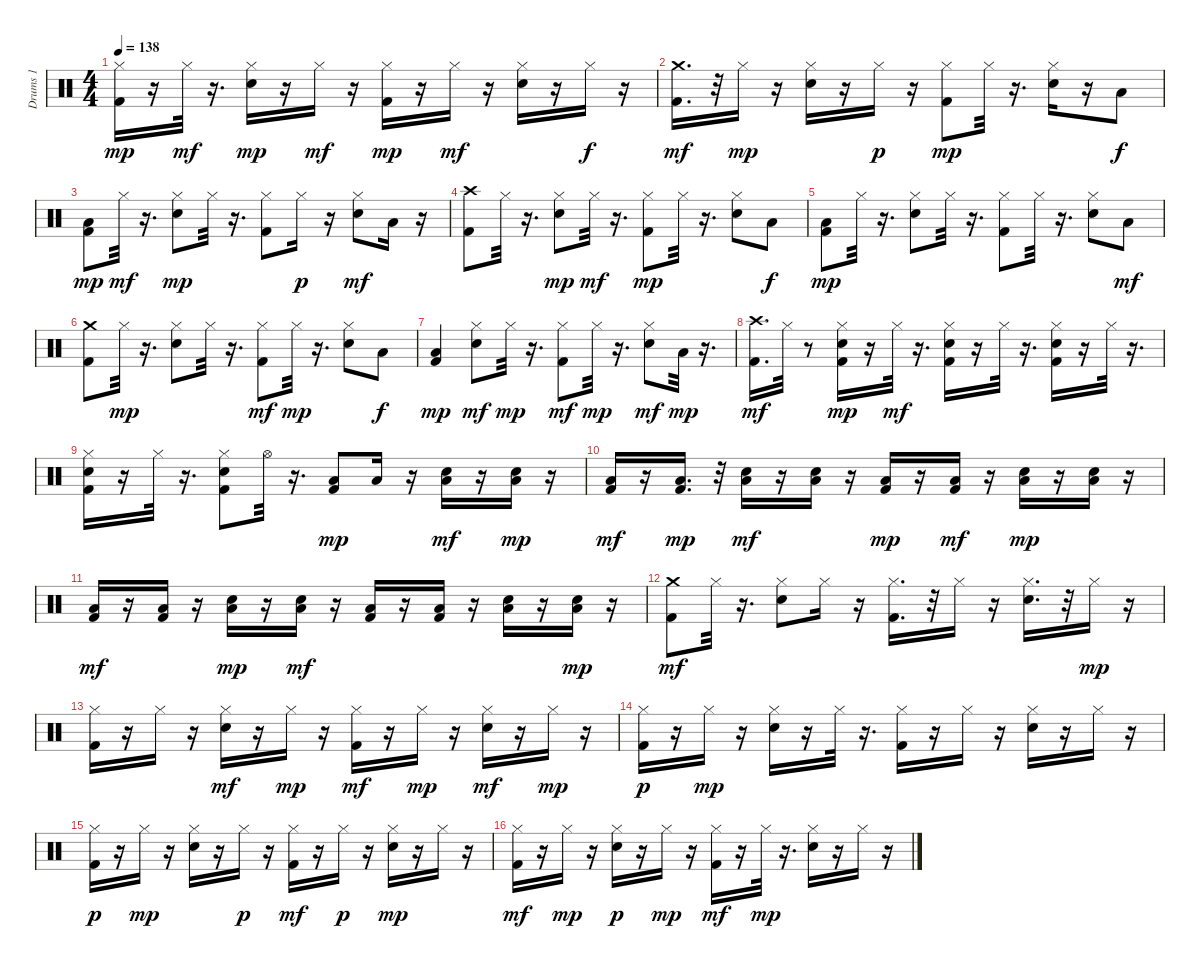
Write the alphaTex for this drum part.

\track ("Drums 1" "Drums 1") {instrument percussion}
\staff {score}
\articulation defaults
\ts (4 4)
\tempo 138
\clef neutral
\ks c
("Hi-Hat (closed)" "Kick (hit) 2").16{dy mp} r.16 "Hi-Hat (closed)".32{dy mf} r.16{d} ("Hi-Hat (closed)" "Snare (hit) 2").16{dy mp} r.16 "Hi-Hat (closed)".16{dy mf} r.16 ("Hi-Hat (closed)" "Kick (hit) 2").16{dy mp} r.16 "Hi-Hat (closed)".16{dy mf} r.16 ("Hi-Hat (closed)" "Snare (hit) 2").16 r.16 "Hi-Hat (closed)".16{dy f} r.16 |
("Kick (hit) 2" "Crash medium (hit)").16{d dy mf} r.32 "Hi-Hat (closed)".16{dy mp} r.16 ("Snare (hit) 2" "Hi-Hat (closed)").16 r.16 "Hi-Hat (closed)".16{dy p} r.16 ("Hi-Hat (closed)" "Kick (hit) 2").8{dy mp} "Hi-Hat (closed)".32 r.16{d} ("Snare (hit) 2" "Hi-Hat (closed)").16 r.16 "Low Tom (hit)".8{dy f} |
("Low Floor Tom (hit)" "Kick (hit) 2").8{dy mp} "Hi-Hat (closed)".32{dy mf} r.16{d} ("Hi-Hat (closed)" "Snare (hit) 2").8{dy mp} "Hi-Hat (closed)".32 r.16{d} ("Kick (hit) 2" "Hi-Hat (closed)").8 "Hi-Hat (closed)".16{dy p} r.16 ("Hi-Hat (closed)" "Snare (hit) 2").8{dy mf} "Low Floor Tom (hit)".16 r.16 |
("Crash high (hit)" "Kick (hit) 2").8 "Hi-Hat (closed)".32 r.16{d} ("Hi-Hat (closed)" "Snare (hit) 2").8{dy mp} "Hi-Hat (closed)".32{dy mf} r.16{d} ("Hi-Hat (closed)" "Kick (hit) 2").8{dy mp} "Hi-Hat (closed)".32 r.16{d} ("Hi-Hat (closed)" "Snare (hit) 2").8 "Low Tom (hit)".8{dy f} |
("Low Floor Tom (hit)" "Kick (hit) 2").8{dy mp} "Hi-Hat (closed)".32 r.16{d} ("Hi-Hat (closed)" "Snare (hit) 2").8 "Hi-Hat (closed)".32 r.16{d} ("Kick (hit) 2" "Hi-Hat (closed)").8 "Hi-Hat (closed)".32 r.16{d} ("Snare (hit) 2" "Hi-Hat (closed)").8 "Low Floor Tom (hit)".8{dy mf} |
("Crash medium (hit)" "Kick (hit) 2").8 "Hi-Hat (closed)".32{dy mp} r.16{d} ("Hi-Hat (closed)" "Snare (hit) 2").8 "Hi-Hat (closed)".32 r.16{d} ("Kick (hit) 2" "Hi-Hat (closed)").8{dy mf} "Hi-Hat (closed)".32{dy mp} r.16{d} ("Hi-Hat (closed)" "Snare (hit) 2").8 "Low Tom (hit)".8{dy f} |
("Low Floor Tom (hit)" "Kick (hit) 2").4{dy mp} ("Snare (hit) 2" "Hi-Hat (closed)").8{dy mf} "Hi-Hat (closed)".32{dy mp} r.16{d} ("Kick (hit) 2" "Hi-Hat (closed)").8{dy mf} "Hi-Hat (closed)".32{dy mp} r.16{d} ("Snare (hit) 2" "Hi-Hat (closed)").8{dy mf} "Low Floor Tom (hit)".32{dy mp} r.16{d} |
("Crash high (hit)" "Kick (hit) 2").16{d dy mf} "Hi-Hat (closed)".32 r.8 ("Kick (hit) 2" "Hi-Hat (closed)" "Snare (hit) 2").16{dy mp} r.16 "Hi-Hat (closed)".32{dy mf} r.16{d} ("Hi-Hat (closed)" "Kick (hit) 2" "Snare (hit) 2").16 r.16 "Hi-Hat (closed)".32 r.16{d} ("Kick (hit) 2" "Hi-Hat (closed)" "Snare (hit) 2").16 r.16 "Hi-Hat (closed)".32 r.16{d} |
("Hi-Hat (closed)" "Kick (hit) 2" "Snare (hit) 2").16 r.16 "Hi-Hat (closed)".32 r.16{d} ("Kick (hit) 2" "Snare (hit) 2" "Hi-Hat (closed)").8 "Hi-Hat (open)".32 r.16{d} ("Kick (hit) 2" "Low Floor Tom (hit)").8{dy mp} "Low Floor Tom (hit)".16 r.16 ("Snare (hit) 2" "Low Floor Tom (hit)").16{dy mf} r.16 ("Low Floor Tom (hit)" "Snare (hit) 2").16{dy mp} r.16 |
("Kick (hit) 2" "Low Floor Tom (hit)").16{dy mf} r.16 ("Low Floor Tom (hit)" "Kick (hit) 2").16{d dy mp} r.32 ("Low Floor Tom (hit)" "Snare (hit) 2").16{dy mf} r.16 ("Snare (hit) 2" "Low Floor Tom (hit)").16 r.16 ("Low Floor Tom (hit)" "Kick (hit) 2").16{dy mp} r.16 ("Kick (hit) 2" "Low Floor Tom (hit)").16{dy mf} r.16 ("Low Floor Tom (hit)" "Snare (hit) 2").16{dy mp} r.16 ("Low Floor Tom (hit)" "Snare (hit) 2").16 r.16 |
("Kick (hit) 2" "Low Floor Tom (hit)").16{dy mf} r.16 ("Kick (hit) 2" "Low Floor Tom (hit)").16 r.16 ("Low Floor Tom (hit)" "Snare (hit) 2").16{dy mp} r.16 ("Snare (hit) 2" "Low Floor Tom (hit)").16{dy mf} r.16 ("Kick (hit) 2" "Low Floor Tom (hit)").16 r.16 ("Kick (hit) 2" "Low Floor Tom (hit)").16 r.16 ("Snare (hit) 2" "Low Floor Tom (hit)").16 r.16 ("Low Floor Tom (hit)" "Snare (hit) 2").16{dy mp} r.16 |
("Kick (hit) 2" "Crash medium (hit)").8{dy mf} "Hi-Hat (closed)".32 r.16{d} ("Hi-Hat (closed)" "Snare (hit) 2").8 "Hi-Hat (closed)".16 r.16 ("Kick (hit) 2" "Hi-Hat (closed)").16{d} r.32 "Hi-Hat (closed)".16 r.16 ("Hi-Hat (closed)" "Snare (hit) 2").16{d} r.32 "Hi-Hat (closed)".16{dy mp} r.16 |
("Hi-Hat (closed)" "Kick (hit) 2").16 r.16 "Hi-Hat (closed)".16 r.16 ("Hi-Hat (closed)" "Snare (hit) 2").16{dy mf} r.16 "Hi-Hat (closed)".16{dy mp} r.16 ("Kick (hit) 2" "Hi-Hat (closed)").16{dy mf} r.16 "Hi-Hat (closed)".16{dy mp} r.16 ("Hi-Hat (closed)" "Snare (hit) 2").16{dy mf} r.16 "Hi-Hat (closed)".16{dy mp} r.16 |
("Hi-Hat (closed)" "Kick (hit) 2").16{dy p} r.16 "Hi-Hat (closed)".16{dy mp} r.16 ("Hi-Hat (closed)" "Snare (hit) 2").16 r.16 "Hi-Hat (closed)".32 r.16{d} ("Hi-Hat (closed)" "Kick (hit) 2").16 r.16 "Hi-Hat (closed)".16 r.16 ("Hi-Hat (closed)" "Snare (hit) 2").16 r.16 "Hi-Hat (closed)".16 r.16 |
("Hi-Hat (closed)" "Kick (hit) 2").16{dy p} r.16 "Hi-Hat (closed)".16{dy mp} r.16 ("Hi-Hat (closed)" "Snare (hit) 2").16 r.16 "Hi-Hat (closed)".16{dy p} r.16 ("Kick (hit) 2" "Hi-Hat (closed)").16{dy mf} r.16 "Hi-Hat (closed)".16{dy p} r.16 ("Hi-Hat (closed)" "Snare (hit) 2").16{dy mp} r.16 "Hi-Hat (closed)".16 r.16 |
("Kick (hit) 2" "Hi-Hat (closed)").16{dy mf} r.16 "Hi-Hat (closed)".16{dy mp} r.16 ("Hi-Hat (closed)" "Snare (hit) 2").16{dy p} r.16 "Hi-Hat (closed)".16{dy mp} r.16 ("Kick (hit) 2" "Hi-Hat (closed)").16{dy mf} r.16 "Hi-Hat (closed)".32{dy mp} r.16{d} ("Hi-Hat (closed)" "Snare (hit) 2").16 r.16 "Hi-Hat (closed)".16 r.16
